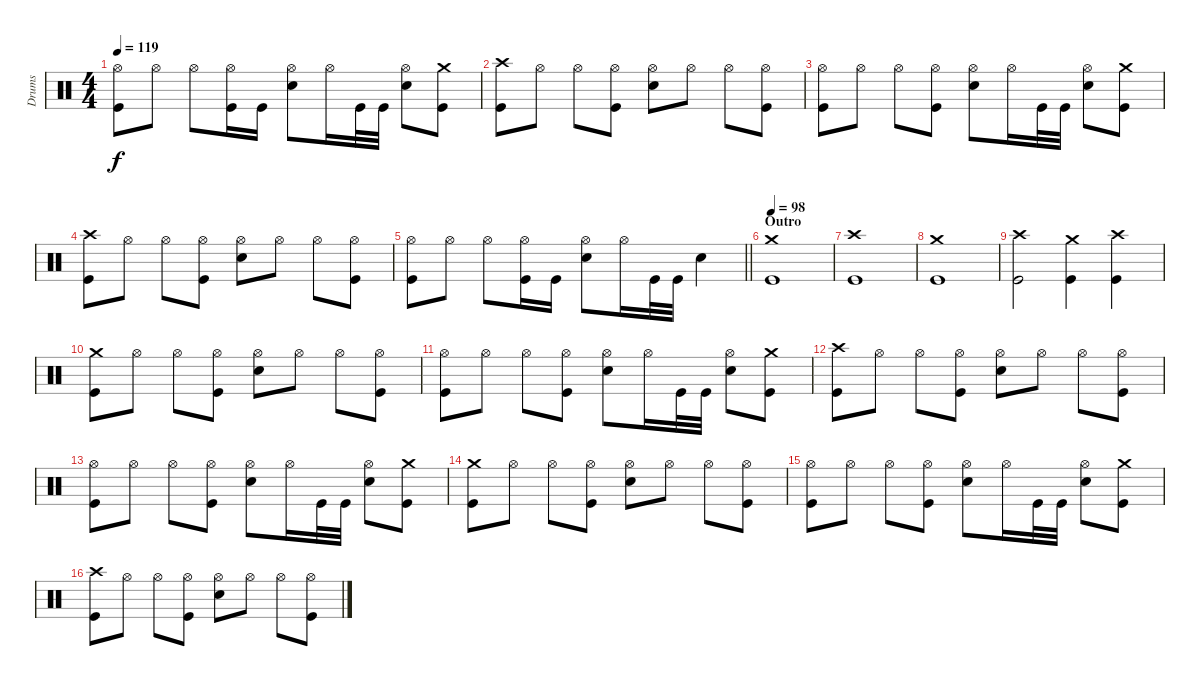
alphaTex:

\track ("Drums" "Drums") {instrument percussion}
\staff {score}
\articulation defaults
\ts (4 4)
\tempo 119
\clef neutral
\ks c
("Hi-Hat (open)" "Kick (hit)").8{dy f} "Hi-Hat (open)".8 "Hi-Hat (open)".8 ("Hi-Hat (open)" "Kick (hit)").16 "Kick (hit)".16 ("Hi-Hat (open)" "Snare (hit) 2").8 "Hi-Hat (open)".16 "Kick (hit)".32 "Kick (hit)".32 ("Hi-Hat (open)" "Snare (hit) 2").8 ("Crash medium (hit)" "Kick (hit)").8 |
("Crash high (hit)" "Kick (hit)").8 "Hi-Hat (open)".8 "Hi-Hat (open)".8 ("Hi-Hat (open)" "Kick (hit)").8 ("Hi-Hat (open)" "Snare (hit) 2").8 "Hi-Hat (open)".8 "Hi-Hat (open)".8 ("Hi-Hat (open)" "Kick (hit)").8 |
("Hi-Hat (open)" "Kick (hit)").8 "Hi-Hat (open)".8 "Hi-Hat (open)".8 ("Hi-Hat (open)" "Kick (hit)").8 ("Hi-Hat (open)" "Snare (hit) 2").8 "Hi-Hat (open)".16 "Kick (hit)".32 "Kick (hit)".32 ("Hi-Hat (open)" "Snare (hit) 2").8 ("Crash medium (hit)" "Kick (hit)").8 |
("Crash high (hit)" "Kick (hit)").8 "Hi-Hat (open)".8 "Hi-Hat (open)".8 ("Hi-Hat (open)" "Kick (hit)").8 ("Hi-Hat (open)" "Snare (hit) 2").8 "Hi-Hat (open)".8 "Hi-Hat (open)".8 ("Hi-Hat (open)" "Kick (hit)").8 |
\barLineRight lightlight
("Hi-Hat (open)" "Kick (hit)").8 "Hi-Hat (open)".8 "Hi-Hat (open)".8 ("Hi-Hat (open)" "Kick (hit)").16 "Kick (hit)".16 ("Hi-Hat (open)" "Snare (hit) 2").8 "Hi-Hat (open)".16 "Kick (hit)".32 "Kick (hit)".32 "Snare (hit) 2".4 |
\section ("" "Outro")
\tempo 98
("Crash medium (hit)" "Kick (hit)").1 |
("Crash high (hit)" "Kick (hit)").1 |
("Crash medium (hit)" "Kick (hit)").1 |
("Crash high (hit)" "Kick (hit)").2 ("Crash medium (hit)" "Kick (hit)").4 ("Crash high (hit)" "Kick (hit)").4 |
("Crash medium (hit)" "Kick (hit)").8 "Hi-Hat (open)".8 "Hi-Hat (open)".8 ("Hi-Hat (open)" "Kick (hit)").8 ("Hi-Hat (open)" "Snare (hit) 2").8 "Hi-Hat (open)".8 "Hi-Hat (open)".8 ("Hi-Hat (open)" "Kick (hit)").8 |
("Hi-Hat (open)" "Kick (hit)").8 "Hi-Hat (open)".8 "Hi-Hat (open)".8 ("Hi-Hat (open)" "Kick (hit)").8 ("Hi-Hat (open)" "Snare (hit) 2").8 "Hi-Hat (open)".16 "Kick (hit)".32 "Kick (hit)".32 ("Hi-Hat (open)" "Snare (hit) 2").8 ("Crash medium (hit)" "Kick (hit)").8 |
("Crash high (hit)" "Kick (hit)").8 "Hi-Hat (open)".8 "Hi-Hat (open)".8 ("Hi-Hat (open)" "Kick (hit)").8 ("Hi-Hat (open)" "Snare (hit) 2").8 "Hi-Hat (open)".8 "Hi-Hat (open)".8 ("Hi-Hat (open)" "Kick (hit)").8 |
("Hi-Hat (open)" "Kick (hit)").8 "Hi-Hat (open)".8 "Hi-Hat (open)".8 ("Hi-Hat (open)" "Kick (hit)").8 ("Hi-Hat (open)" "Snare (hit) 2").8 "Hi-Hat (open)".16 "Kick (hit)".32 "Kick (hit)".32 ("Hi-Hat (open)" "Snare (hit) 2").8 ("Crash medium (hit)" "Kick (hit)").8 |
("Crash medium (hit)" "Kick (hit)").8 "Hi-Hat (open)".8 "Hi-Hat (open)".8 ("Hi-Hat (open)" "Kick (hit)").8 ("Hi-Hat (open)" "Snare (hit) 2").8 "Hi-Hat (open)".8 "Hi-Hat (open)".8 ("Hi-Hat (open)" "Kick (hit)").8 |
("Hi-Hat (open)" "Kick (hit)").8 "Hi-Hat (open)".8 "Hi-Hat (open)".8 ("Hi-Hat (open)" "Kick (hit)").8 ("Hi-Hat (open)" "Snare (hit) 2").8 "Hi-Hat (open)".16 "Kick (hit)".32 "Kick (hit)".32 ("Hi-Hat (open)" "Snare (hit) 2").8 ("Crash medium (hit)" "Kick (hit)").8 |
("Crash high (hit)" "Kick (hit)").8 "Hi-Hat (open)".8 "Hi-Hat (open)".8 ("Hi-Hat (open)" "Kick (hit)").8 ("Hi-Hat (open)" "Snare (hit) 2").8 "Hi-Hat (open)".8 "Hi-Hat (open)".8 ("Hi-Hat (open)" "Kick (hit)").8
